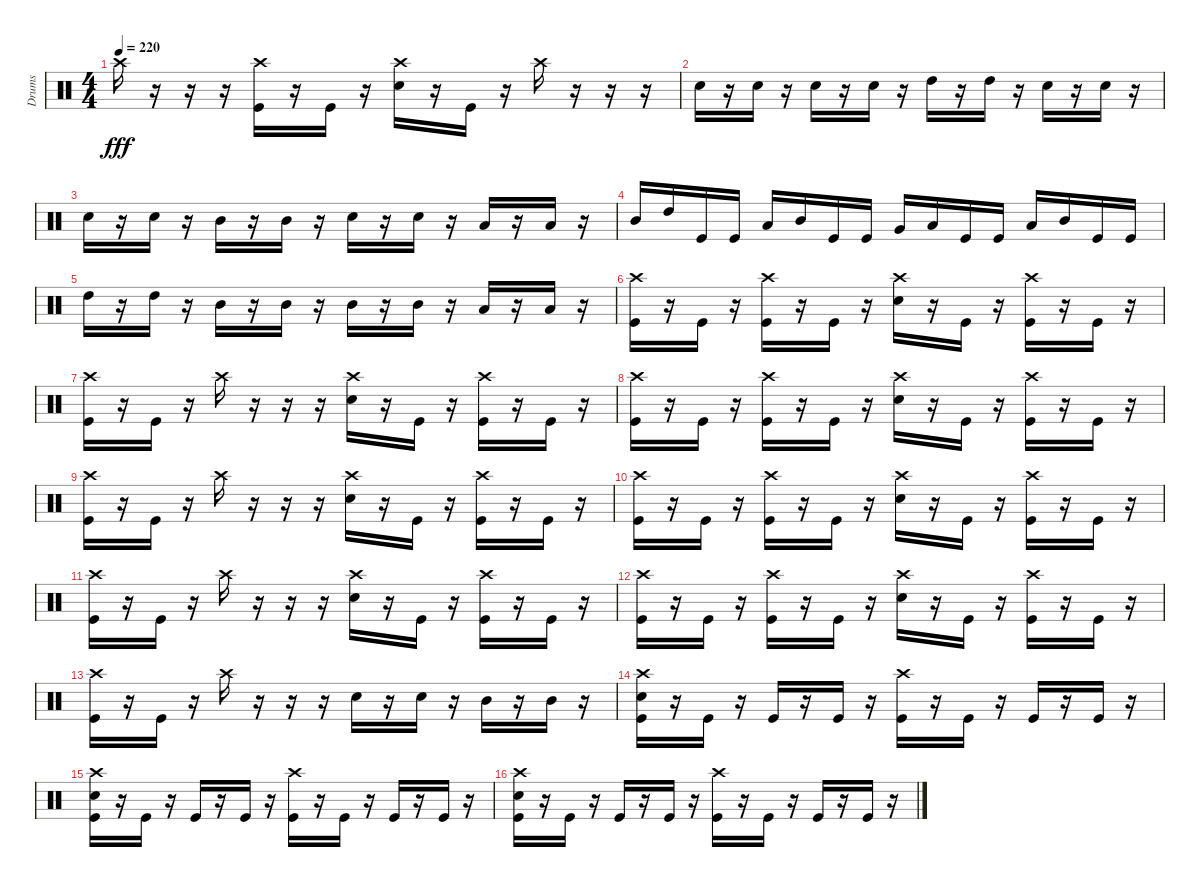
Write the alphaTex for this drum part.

\track ("Drums" "Drums") {instrument percussion}
\staff {score}
\articulation defaults
\ts (4 4)
\tempo 220
\clef neutral
\ks c "Crash high (hit)".16{dy fff}
r.16 r.16 r.16 ("Crash high (hit)" "Kick (hit)").16 r.16 "Kick (hit)".16 r.16 ("Crash high (hit)" "Electric Snare (hit)").16 r.16 "Kick (hit)".16 r.16 "Crash high (hit)".16 r.16 r.16 r.16 |
"Electric Snare (hit)".16 r.16 "Electric Snare (hit)".16 r.16 "Electric Snare (hit)".16 r.16 "Electric Snare (hit)".16 r.16 "High Tom (hit)".16 r.16 "High Tom (hit)".16 r.16 "Electric Snare (hit)".16 r.16 "Electric Snare (hit)".16 r.16 |
"Electric Snare (hit)".16 r.16 "Electric Snare (hit)".16 r.16 "Mid Tom (hit)".16 r.16 "Mid Tom (hit)".16 r.16 "Electric Snare (hit)".16 r.16 "Electric Snare (hit)".16 r.16 "Low Tom (hit)".16 r.16 "Low Tom (hit)".16 r.16 |
"Mid Tom (hit)".16 "High Tom (hit)".16 "Kick (hit)".16 "Kick (hit)".16 "Low Tom (hit)".16 "Mid Tom (hit)".16 "Kick (hit)".16 "Kick (hit)".16 "Very Low Tom (hit)".16 "Low Tom (hit)".16 "Kick (hit)".16 "Kick (hit)".16 "Low Tom (hit)".16 "Mid Tom (hit)".16 "Kick (hit)".16 "Kick (hit)".16 |
"High Tom (hit)".16 r.16 "High Tom (hit)".16 r.16 "Mid Tom (hit)".16 r.16 "Mid Tom (hit)".16 r.16 "Mid Tom (hit)".16 r.16 "Mid Tom (hit)".16 r.16 "Low Tom (hit)".16 r.16 "Low Tom (hit)".16 r.16 |
("Crash high (hit)" "Kick (hit)").16 r.16 "Kick (hit)".16 r.16 ("Crash high (hit)" "Kick (hit)").16 r.16 "Kick (hit)".16 r.16 ("Crash high (hit)" "Electric Snare (hit)").16 r.16 "Kick (hit)".16 r.16 ("Crash high (hit)" "Kick (hit)").16 r.16 "Kick (hit)".16 r.16 |
("Crash high (hit)" "Kick (hit)").16 r.16 "Kick (hit)".16 r.16 "Crash high (hit)".16 r.16 r.16 r.16 ("Crash high (hit)" "Electric Snare (hit)").16 r.16 "Kick (hit)".16 r.16 ("Crash high (hit)" "Kick (hit)").16 r.16 "Kick (hit)".16 r.16 |
("Crash high (hit)" "Kick (hit)").16 r.16 "Kick (hit)".16 r.16 ("Crash high (hit)" "Kick (hit)").16 r.16 "Kick (hit)".16 r.16 ("Crash high (hit)" "Electric Snare (hit)").16 r.16 "Kick (hit)".16 r.16 ("Crash high (hit)" "Kick (hit)").16 r.16 "Kick (hit)".16 r.16 |
("Crash high (hit)" "Kick (hit)").16 r.16 "Kick (hit)".16 r.16 "Crash high (hit)".16 r.16 r.16 r.16 ("Crash high (hit)" "Electric Snare (hit)").16 r.16 "Kick (hit)".16 r.16 ("Crash high (hit)" "Kick (hit)").16 r.16 "Kick (hit)".16 r.16 |
("Crash high (hit)" "Kick (hit)").16 r.16 "Kick (hit)".16 r.16 ("Crash high (hit)" "Kick (hit)").16 r.16 "Kick (hit)".16 r.16 ("Crash high (hit)" "Electric Snare (hit)").16 r.16 "Kick (hit)".16 r.16 ("Crash high (hit)" "Kick (hit)").16 r.16 "Kick (hit)".16 r.16 |
("Crash high (hit)" "Kick (hit)").16 r.16 "Kick (hit)".16 r.16 "Crash high (hit)".16 r.16 r.16 r.16 ("Crash high (hit)" "Electric Snare (hit)").16 r.16 "Kick (hit)".16 r.16 ("Crash high (hit)" "Kick (hit)").16 r.16 "Kick (hit)".16 r.16 |
("Crash high (hit)" "Kick (hit)").16 r.16 "Kick (hit)".16 r.16 ("Crash high (hit)" "Kick (hit)").16 r.16 "Kick (hit)".16 r.16 ("Crash high (hit)" "Electric Snare (hit)").16 r.16 "Kick (hit)".16 r.16 ("Crash high (hit)" "Kick (hit)").16 r.16 "Kick (hit)".16 r.16 |
("Crash high (hit)" "Kick (hit)").16 r.16 "Kick (hit)".16 r.16 "Crash high (hit)".16 r.16 r.16 r.16 "Electric Snare (hit)".16 r.16 "Electric Snare (hit)".16 r.16 "Mid Tom (hit)".16 r.16 "Mid Tom (hit)".16 r.16 |
("Crash high (hit)" "Electric Snare (hit)" "Kick (hit)").16 r.16 "Kick (hit)".16 r.16 "Kick (hit)".16 r.16 "Kick (hit)".16 r.16 ("Crash high (hit)" "Kick (hit)").16 r.16 "Kick (hit)".16 r.16 "Kick (hit)".16 r.16 "Kick (hit)".16 r.16 |
("Crash high (hit)" "Electric Snare (hit)" "Kick (hit)").16 r.16 "Kick (hit)".16 r.16 "Kick (hit)".16 r.16 "Kick (hit)".16 r.16 ("Crash high (hit)" "Kick (hit)").16 r.16 "Kick (hit)".16 r.16 "Kick (hit)".16 r.16 "Kick (hit)".16 r.16 |
("Crash high (hit)" "Electric Snare (hit)" "Kick (hit)").16 r.16 "Kick (hit)".16 r.16 "Kick (hit)".16 r.16 "Kick (hit)".16 r.16 ("Crash high (hit)" "Kick (hit)").16 r.16 "Kick (hit)".16 r.16 "Kick (hit)".16 r.16 "Kick (hit)".16 r.16
